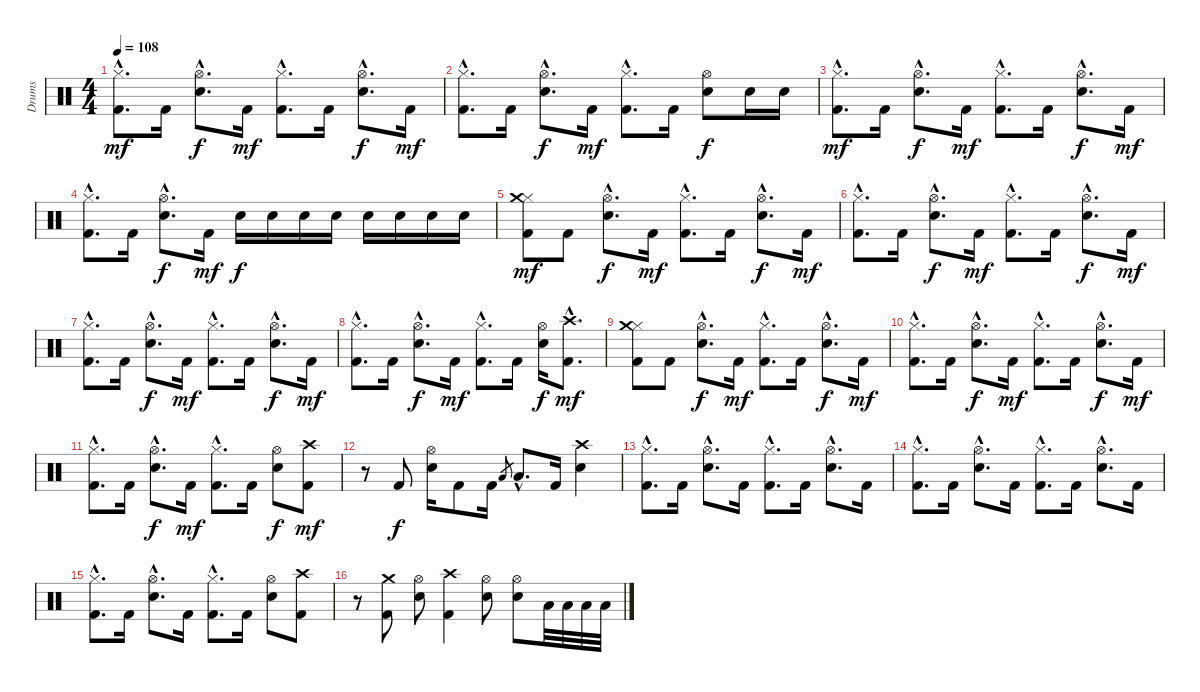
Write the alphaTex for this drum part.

\track ("Drums" "Drums") {instrument percussion}
\staff {score}
\articulation defaults
\ts (4 4)
\tempo 108
\clef neutral
\ks c
("Kick (hit) 2"{hac} "Hi-Hat (closed)"{hac}).8{d dy mf} "Kick (hit) 2".16 ("Snare (hit) 2"{hac} "Hi-Hat (open)"{hac}).8{d dy f} "Kick (hit) 2".16{dy mf} ("Kick (hit) 2"{hac} "Hi-Hat (closed)"{hac}).8{d} "Kick (hit) 2".16 ("Snare (hit) 2"{hac} "Hi-Hat (open)"{hac}).8{d dy f} "Kick (hit) 2".16{dy mf} |
("Kick (hit) 2"{hac} "Hi-Hat (closed)"{hac}).8{d} "Kick (hit) 2".16 ("Snare (hit) 2"{hac} "Hi-Hat (open)"{hac}).8{d dy f} "Kick (hit) 2".16{dy mf} ("Kick (hit) 2"{hac} "Hi-Hat (closed)"{hac}).8{d} "Kick (hit) 2".16 ("Snare (hit) 2" "Hi-Hat (open)").8{dy f} "Snare (hit) 2".16 "Snare (hit) 2".16 |
("Kick (hit) 2"{hac} "Hi-Hat (closed)"{hac}).8{d dy mf} "Kick (hit) 2".16 ("Snare (hit) 2"{hac} "Hi-Hat (open)"{hac}).8{d dy f} "Kick (hit) 2".16{dy mf} ("Kick (hit) 2"{hac} "Hi-Hat (closed)"{hac}).8{d} "Kick (hit) 2".16 ("Snare (hit) 2"{hac} "Hi-Hat (open)"{hac}).8{d dy f} "Kick (hit) 2".16{dy mf} |
("Kick (hit) 2"{hac} "Hi-Hat (closed)"{hac}).8{d} "Kick (hit) 2".16 ("Snare (hit) 2"{hac} "Hi-Hat (open)"{hac}).8{d dy f} "Kick (hit) 2".16{dy mf} "Snare (hit) 2".16{dy f} "Snare (hit) 2".16 "Snare (hit) 2".16 "Snare (hit) 2".16 "Snare (hit) 2".16 "Snare (hit) 2".16 "Snare (hit) 2".16 "Snare (hit) 2".16 |
("Kick (hit) 2" "Hi-Hat (closed)" "Crash medium (hit)").8{dy mf} "Kick (hit) 2".8 ("Snare (hit) 2"{hac} "Hi-Hat (open)"{hac}).8{d dy f} "Kick (hit) 2".16{dy mf} ("Kick (hit) 2"{hac} "Hi-Hat (closed)"{hac}).8{d} "Kick (hit) 2".16 ("Snare (hit) 2"{hac} "Hi-Hat (open)"{hac}).8{d dy f} "Kick (hit) 2".16{dy mf} |
("Kick (hit) 2"{hac} "Hi-Hat (closed)"{hac}).8{d} "Kick (hit) 2".16 ("Snare (hit) 2"{hac} "Hi-Hat (open)"{hac}).8{d dy f} "Kick (hit) 2".16{dy mf} ("Kick (hit) 2"{hac} "Hi-Hat (closed)"{hac}).8{d} "Kick (hit) 2".16 ("Snare (hit) 2"{hac} "Hi-Hat (open)"{hac}).8{d dy f} "Kick (hit) 2".16{dy mf} |
("Kick (hit) 2"{hac} "Hi-Hat (closed)"{hac}).8{d} "Kick (hit) 2".16 ("Snare (hit) 2"{hac} "Hi-Hat (open)"{hac}).8{d dy f} "Kick (hit) 2".16{dy mf} ("Kick (hit) 2"{hac} "Hi-Hat (closed)"{hac}).8{d} "Kick (hit) 2".16 ("Snare (hit) 2"{hac} "Hi-Hat (open)"{hac}).8{d dy f} "Kick (hit) 2".16{dy mf} |
("Kick (hit) 2"{hac} "Hi-Hat (closed)"{hac}).8{d} "Kick (hit) 2".16 ("Snare (hit) 2"{hac} "Hi-Hat (open)"{hac}).8{d dy f} "Kick (hit) 2".16{dy mf} ("Kick (hit) 2"{hac} "Hi-Hat (closed)"{hac}).8{d} "Kick (hit) 2".16 ("Snare (hit) 2" "Hi-Hat (open)").16{dy f} ("Kick (hit) 2"{hac} "Crash high (hit)"{hac}).8{d dy mf} |
("Kick (hit) 2" "Hi-Hat (closed)" "Crash medium (hit)").8 "Kick (hit) 2".8 ("Snare (hit) 2"{hac} "Hi-Hat (open)"{hac}).8{d dy f} "Kick (hit) 2".16{dy mf} ("Kick (hit) 2"{hac} "Hi-Hat (closed)"{hac}).8{d} "Kick (hit) 2".16 ("Snare (hit) 2"{hac} "Hi-Hat (open)"{hac}).8{d dy f} "Kick (hit) 2".16{dy mf} |
("Kick (hit) 2"{hac} "Hi-Hat (closed)"{hac}).8{d} "Kick (hit) 2".16 ("Snare (hit) 2"{hac} "Hi-Hat (open)"{hac}).8{d dy f} "Kick (hit) 2".16{dy mf} ("Kick (hit) 2"{hac} "Hi-Hat (closed)"{hac}).8{d} "Kick (hit) 2".16 ("Snare (hit) 2"{hac} "Hi-Hat (open)"{hac}).8{d dy f} "Kick (hit) 2".16{dy mf} |
("Kick (hit) 2"{hac} "Hi-Hat (closed)"{hac}).8{d} "Kick (hit) 2".16 ("Snare (hit) 2"{hac} "Hi-Hat (open)"{hac}).8{d dy f} "Kick (hit) 2".16{dy mf} ("Kick (hit) 2"{hac} "Hi-Hat (closed)"{hac}).8{d} "Kick (hit) 2".16 ("Snare (hit) 2" "Hi-Hat (open)").8{dy f} ("Kick (hit) 2" "Crash high (hit)").8{dy mf} |
r.8 "Kick (hit) 2".8{dy f} ("Snare (hit) 2" "Hi-Hat (open)").16 "Kick (hit) 2".8 "Kick (hit) 2".16 "Low Floor Tom (hit)".8{gr} "Low Floor Tom (hit)"{hac}.8{d} "Kick (hit) 2".16 ("Snare (hit) 2" "Crash high (hit)").4 |
("Kick (hit) 2"{hac} "Hi-Hat (closed)"{hac}).8{d} "Kick (hit) 2".16 ("Snare (hit) 2"{hac} "Hi-Hat (open)"{hac}).8{d} "Kick (hit) 2".16 ("Kick (hit) 2"{hac} "Hi-Hat (closed)"{hac}).8{d} "Kick (hit) 2".16 ("Snare (hit) 2"{hac} "Hi-Hat (open)"{hac}).8{d} "Kick (hit) 2".16 |
("Kick (hit) 2"{hac} "Hi-Hat (closed)"{hac}).8{d} "Kick (hit) 2".16 ("Snare (hit) 2"{hac} "Hi-Hat (open)"{hac}).8{d} "Kick (hit) 2".16 ("Kick (hit) 2"{hac} "Hi-Hat (closed)"{hac}).8{d} "Kick (hit) 2".16 ("Snare (hit) 2"{hac} "Hi-Hat (open)"{hac}).8{d} "Kick (hit) 2".16 |
("Kick (hit) 2"{hac} "Hi-Hat (closed)"{hac}).8{d} "Kick (hit) 2".16 ("Snare (hit) 2"{hac} "Hi-Hat (open)"{hac}).8{d} "Kick (hit) 2".16 ("Kick (hit) 2"{hac} "Hi-Hat (closed)"{hac}).8{d} "Kick (hit) 2".16 ("Snare (hit) 2" "Hi-Hat (open)").8 ("Kick (hit) 2" "Crash high (hit)").8 |
r.8 ("Kick (hit) 2" "Crash medium (hit)").8 ("Snare (hit) 2" "Hi-Hat (open)").8 ("Kick (hit) 2" "Crash high (hit)").4 ("Snare (hit) 2" "Hi-Hat (open)").8 ("Snare (hit) 2" "Hi-Hat (open)").8 "Low Tom (hit)".32 "Low Tom (hit)".32 "Low Tom (hit)".32 "Low Tom (hit)".32
